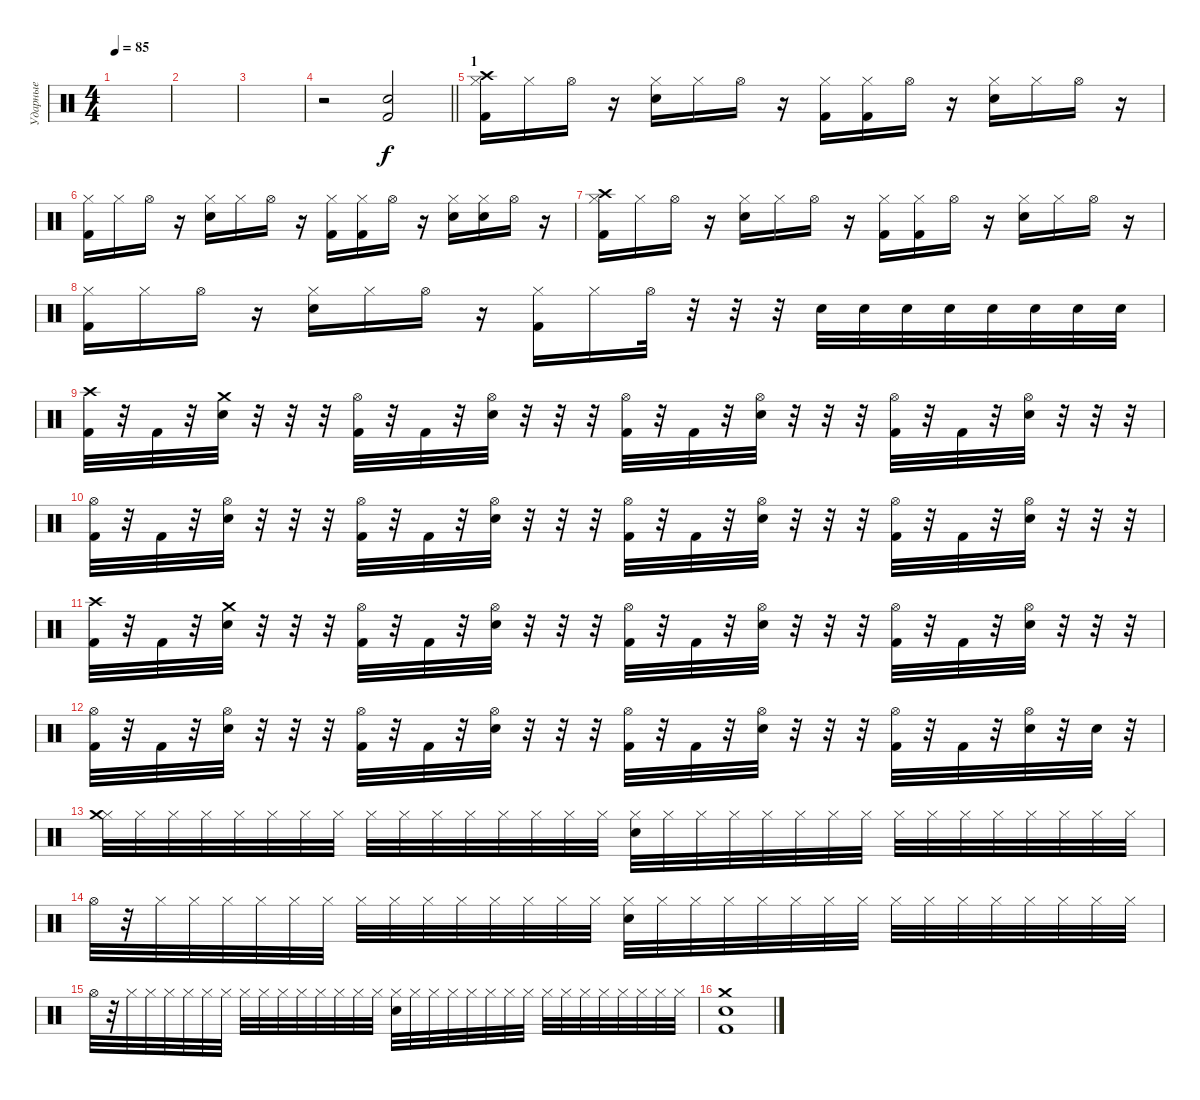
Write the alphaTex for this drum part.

\track ("Ударные" "Ударные") {instrument percussion}
\staff {score}
\articulation defaults
\ts (4 4)
\tempo 85
\clef neutral
\ks c
|
|
|
\barLineRight lightlight
r.2 ("Electric Snare (hit)" "Kick (hit) 2").2 |
\section ("" "1")
("Hi-Hat (closed)" "Crash high (hit)" "Kick (hit) 2").16 "Hi-Hat (closed)".16 "Hi-Hat (open)".16 r.16 ("Hi-Hat (closed)" "Electric Snare (hit)").16 "Hi-Hat (closed)".16 "Hi-Hat (open)".16 r.16 ("Hi-Hat (closed)" "Kick (hit) 2").16 ("Hi-Hat (closed)" "Kick (hit) 2").16 "Hi-Hat (open)".16 r.16 ("Hi-Hat (closed)" "Electric Snare (hit)").16 "Hi-Hat (closed)".16 "Hi-Hat (open)".16 r.16 |
("Hi-Hat (closed)" "Kick (hit) 2").16 "Hi-Hat (closed)".16 "Hi-Hat (open)".16 r.16 ("Hi-Hat (closed)" "Electric Snare (hit)").16 "Hi-Hat (closed)".16 "Hi-Hat (open)".16 r.16 ("Hi-Hat (closed)" "Kick (hit) 2").16 ("Hi-Hat (closed)" "Kick (hit) 2").16 "Hi-Hat (open)".16 r.16 ("Hi-Hat (closed)" "Electric Snare (hit)").16 ("Hi-Hat (closed)" "Electric Snare (hit)").16 "Hi-Hat (open)".16 r.16 |
("Hi-Hat (closed)" "Crash high (hit)" "Kick (hit) 2").16 "Hi-Hat (closed)".16 "Hi-Hat (open)".16 r.16 ("Hi-Hat (closed)" "Electric Snare (hit)").16 "Hi-Hat (closed)".16 "Hi-Hat (open)".16 r.16 ("Hi-Hat (closed)" "Kick (hit) 2").16 ("Hi-Hat (closed)" "Kick (hit) 2").16 "Hi-Hat (open)".16 r.16 ("Hi-Hat (closed)" "Electric Snare (hit)").16 "Hi-Hat (closed)".16 "Hi-Hat (open)".16 r.16 |
("Hi-Hat (closed)" "Kick (hit) 2").16 "Hi-Hat (closed)".16 "Hi-Hat (open)".16 r.16 ("Hi-Hat (closed)" "Electric Snare (hit)").16 "Hi-Hat (closed)".16 "Hi-Hat (open)".16 r.16 ("Hi-Hat (closed)" "Kick (hit) 2").16 "Hi-Hat (closed)".16 "Hi-Hat (open)".32 r.32 r.32 r.32 "Electric Snare (hit)".32 "Electric Snare (hit)".32 "Electric Snare (hit)".32 "Electric Snare (hit)".32 "Electric Snare (hit)".32 "Electric Snare (hit)".32 "Electric Snare (hit)".32 "Electric Snare (hit)".32 |
("Crash high (hit)" "Kick (hit) 2").32 r.32 "Kick (hit) 2".32 r.32 ("Crash medium (hit)" "Electric Snare (hit)").32 r.32 r.32 r.32 ("Hi-Hat (open)" "Kick (hit) 2").32 r.32 "Kick (hit) 2".32 r.32 ("Hi-Hat (open)" "Electric Snare (hit)").32 r.32 r.32 r.32 ("Hi-Hat (open)" "Kick (hit) 2").32 r.32 "Kick (hit) 2".32 r.32 ("Hi-Hat (open)" "Electric Snare (hit)").32 r.32 r.32 r.32 ("Hi-Hat (open)" "Kick (hit) 2").32 r.32 "Kick (hit) 2".32 r.32 ("Hi-Hat (open)" "Electric Snare (hit)").32 r.32 r.32 r.32 |
("Hi-Hat (open)" "Kick (hit) 2").32 r.32 "Kick (hit) 2".32 r.32 ("Hi-Hat (open)" "Electric Snare (hit)").32 r.32 r.32 r.32 ("Hi-Hat (open)" "Kick (hit) 2").32 r.32 "Kick (hit) 2".32 r.32 ("Hi-Hat (open)" "Electric Snare (hit)").32 r.32 r.32 r.32 ("Hi-Hat (open)" "Kick (hit) 2").32 r.32 "Kick (hit) 2".32 r.32 ("Hi-Hat (open)" "Electric Snare (hit)").32 r.32 r.32 r.32 ("Hi-Hat (open)" "Kick (hit) 2").32 r.32 "Kick (hit) 2".32 r.32 ("Hi-Hat (open)" "Electric Snare (hit)").32 r.32 r.32 r.32 |
("Crash high (hit)" "Kick (hit) 2").32 r.32 "Kick (hit) 2".32 r.32 ("Crash medium (hit)" "Electric Snare (hit)").32 r.32 r.32 r.32 ("Hi-Hat (open)" "Kick (hit) 2").32 r.32 "Kick (hit) 2".32 r.32 ("Hi-Hat (open)" "Electric Snare (hit)").32 r.32 r.32 r.32 ("Hi-Hat (open)" "Kick (hit) 2").32 r.32 "Kick (hit) 2".32 r.32 ("Hi-Hat (open)" "Electric Snare (hit)").32 r.32 r.32 r.32 ("Hi-Hat (open)" "Kick (hit) 2").32 r.32 "Kick (hit) 2".32 r.32 ("Hi-Hat (open)" "Electric Snare (hit)").32 r.32 r.32 r.32 |
("Hi-Hat (open)" "Kick (hit) 2").32 r.32 "Kick (hit) 2".32 r.32 ("Hi-Hat (open)" "Electric Snare (hit)").32 r.32 r.32 r.32 ("Hi-Hat (open)" "Kick (hit) 2").32 r.32 "Kick (hit) 2".32 r.32 ("Hi-Hat (open)" "Electric Snare (hit)").32 r.32 r.32 r.32 ("Hi-Hat (open)" "Kick (hit) 2").32 r.32 "Kick (hit) 2".32 r.32 ("Hi-Hat (open)" "Electric Snare (hit)").32 r.32 r.32 r.32 ("Hi-Hat (open)" "Kick (hit) 2").32 r.32 "Kick (hit) 2".32 r.32 ("Hi-Hat (open)" "Electric Snare (hit)").32 r.32 "Electric Snare (hit)".32 r.32 |
("Hi-Hat (closed)" "Crash medium (hit)").32 "Hi-Hat (closed)".32 "Hi-Hat (closed)".32 "Hi-Hat (closed)".32 "Hi-Hat (closed)".32 "Hi-Hat (closed)".32 "Hi-Hat (closed)".32 "Hi-Hat (closed)".32 "Hi-Hat (closed)".32 "Hi-Hat (closed)".32 "Hi-Hat (closed)".32 "Hi-Hat (closed)".32 "Hi-Hat (closed)".32 "Hi-Hat (closed)".32 "Hi-Hat (closed)".32 "Hi-Hat (closed)".32 ("Hi-Hat (closed)" "Electric Snare (hit)").32 "Hi-Hat (closed)".32 "Hi-Hat (closed)".32 "Hi-Hat (closed)".32 "Hi-Hat (closed)".32 "Hi-Hat (closed)".32 "Hi-Hat (closed)".32 "Hi-Hat (closed)".32 "Hi-Hat (closed)".32 "Hi-Hat (closed)".32 "Hi-Hat (closed)".32 "Hi-Hat (closed)".32 "Hi-Hat (closed)".32 "Hi-Hat (closed)".32 "Hi-Hat (closed)".32 "Hi-Hat (closed)".32 |
"Hi-Hat (open)".32 r.32 "Hi-Hat (closed)".32 "Hi-Hat (closed)".32 "Hi-Hat (closed)".32 "Hi-Hat (closed)".32 "Hi-Hat (closed)".32 "Hi-Hat (closed)".32 "Hi-Hat (closed)".32 "Hi-Hat (closed)".32 "Hi-Hat (closed)".32 "Hi-Hat (closed)".32 "Hi-Hat (closed)".32 "Hi-Hat (closed)".32 "Hi-Hat (closed)".32 "Hi-Hat (closed)".32 ("Hi-Hat (closed)" "Electric Snare (hit)").32 "Hi-Hat (closed)".32 "Hi-Hat (closed)".32 "Hi-Hat (closed)".32 "Hi-Hat (closed)".32 "Hi-Hat (closed)".32 "Hi-Hat (closed)".32 "Hi-Hat (closed)".32 "Hi-Hat (closed)".32 "Hi-Hat (closed)".32 "Hi-Hat (closed)".32 "Hi-Hat (closed)".32 "Hi-Hat (closed)".32 "Hi-Hat (closed)".32 "Hi-Hat (closed)".32 "Hi-Hat (closed)".32 |
"Hi-Hat (open)".32 r.32 "Hi-Hat (closed)".32 "Hi-Hat (closed)".32 "Hi-Hat (closed)".32 "Hi-Hat (closed)".32 "Hi-Hat (closed)".32 "Hi-Hat (closed)".32 "Hi-Hat (closed)".32 "Hi-Hat (closed)".32 "Hi-Hat (closed)".32 "Hi-Hat (closed)".32 "Hi-Hat (closed)".32 "Hi-Hat (closed)".32 "Hi-Hat (closed)".32 "Hi-Hat (closed)".32 ("Hi-Hat (closed)" "Electric Snare (hit)").32 "Hi-Hat (closed)".32 "Hi-Hat (closed)".32 "Hi-Hat (closed)".32 "Hi-Hat (closed)".32 "Hi-Hat (closed)".32 "Hi-Hat (closed)".32 "Hi-Hat (closed)".32 "Hi-Hat (closed)".32 "Hi-Hat (closed)".32 "Hi-Hat (closed)".32 "Hi-Hat (closed)".32 "Hi-Hat (closed)".32 "Hi-Hat (closed)".32 "Hi-Hat (closed)".32 "Hi-Hat (closed)".32 |
("Crash medium (hit)" "Electric Snare (hit)" "Kick (hit) 2").1
